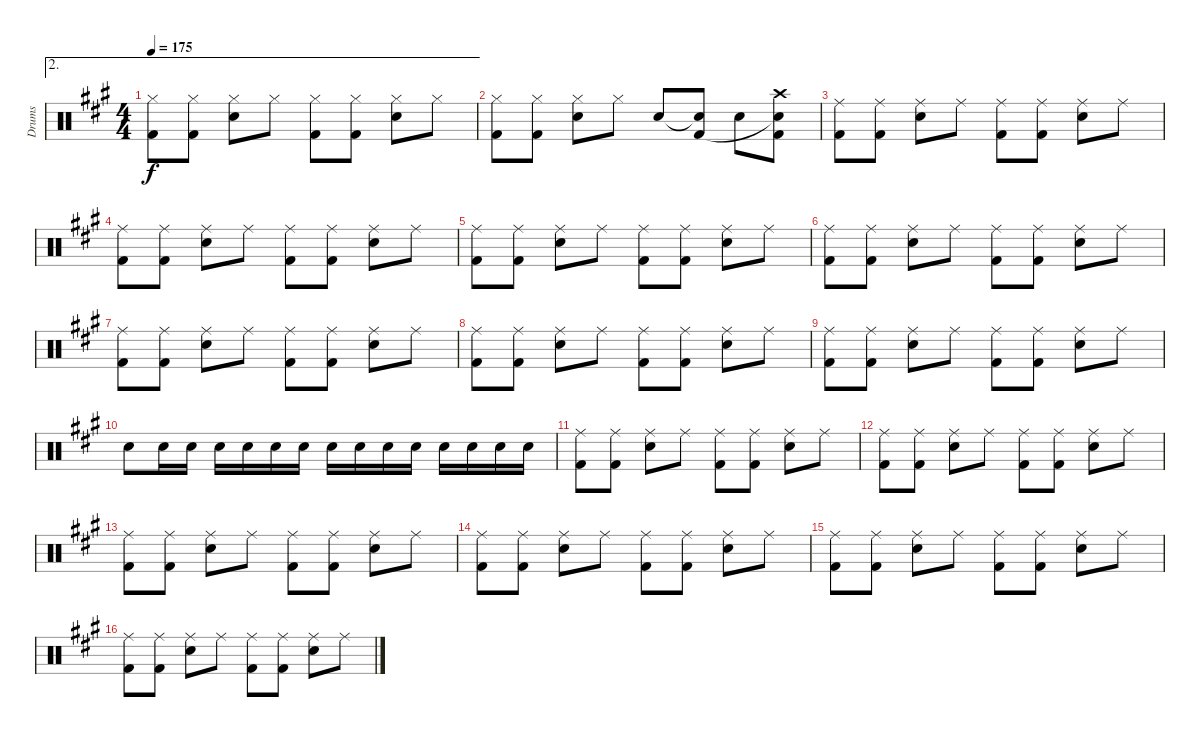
\track ("Drums" "Drums") {instrument percussion}
\staff {score}
\articulation defaults
\ae 2
\ts (4 4)
\tempo 175
\clef neutral
\ks f#minor
("Hi-Hat (closed)" "Kick (hit) 2").8{dy f} ("Hi-Hat (closed)" "Kick (hit) 2").8 ("Hi-Hat (closed)" "Snare (hit) 2").8 "Hi-Hat (closed)".8 ("Hi-Hat (closed)" "Kick (hit) 2").8 ("Hi-Hat (closed)" "Kick (hit) 2").8 ("Hi-Hat (closed)" "Snare (hit) 2").8 "Hi-Hat (closed)".8 |
("Hi-Hat (closed)" "Kick (hit) 2").8 ("Hi-Hat (closed)" "Kick (hit) 2").8 ("Hi-Hat (closed)" "Snare (hit) 2").8 "Hi-Hat (closed)".8 "Snare (hit) 2".8 ("Snare (hit) 2"{t} "Kick (hit) 2").8 "Snare (hit) 2".8 ("Crash high (hit)" "Snare (hit) 2"{t} "Kick (hit) 2").8 |
("Ride (middle)" "Kick (hit) 2").8 ("Ride (middle)" "Kick (hit) 2").8 ("Ride (middle)" "Snare (hit) 2").8 "Ride (middle)".8 ("Ride (middle)" "Kick (hit) 2").8 ("Ride (middle)" "Kick (hit) 2").8 ("Ride (middle)" "Snare (hit) 2").8 "Ride (middle)".8 |
("Ride (middle)" "Kick (hit) 2").8 ("Ride (middle)" "Kick (hit) 2").8 ("Ride (middle)" "Snare (hit) 2").8 "Ride (middle)".8 ("Ride (middle)" "Kick (hit) 2").8 ("Ride (middle)" "Kick (hit) 2").8 ("Ride (middle)" "Snare (hit) 2").8 "Ride (middle)".8 |
("Ride (middle)" "Kick (hit) 2").8 ("Ride (middle)" "Kick (hit) 2").8 ("Ride (middle)" "Snare (hit) 2").8 "Ride (middle)".8 ("Ride (middle)" "Kick (hit) 2").8 ("Ride (middle)" "Kick (hit) 2").8 ("Ride (middle)" "Snare (hit) 2").8 "Ride (middle)".8 |
("Ride (middle)" "Kick (hit) 2").8 ("Ride (middle)" "Kick (hit) 2").8 ("Ride (middle)" "Snare (hit) 2").8 "Ride (middle)".8 ("Ride (middle)" "Kick (hit) 2").8 ("Ride (middle)" "Kick (hit) 2").8 ("Ride (middle)" "Snare (hit) 2").8 "Ride (middle)".8 |
("Ride (middle)" "Kick (hit) 2").8 ("Ride (middle)" "Kick (hit) 2").8 ("Ride (middle)" "Snare (hit) 2").8 "Ride (middle)".8 ("Ride (middle)" "Kick (hit) 2").8 ("Ride (middle)" "Kick (hit) 2").8 ("Ride (middle)" "Snare (hit) 2").8 "Ride (middle)".8 |
("Ride (middle)" "Kick (hit) 2").8 ("Ride (middle)" "Kick (hit) 2").8 ("Ride (middle)" "Snare (hit) 2").8 "Ride (middle)".8 ("Ride (middle)" "Kick (hit) 2").8 ("Ride (middle)" "Kick (hit) 2").8 ("Ride (middle)" "Snare (hit) 2").8 "Ride (middle)".8 |
("Ride (middle)" "Kick (hit) 2").8 ("Ride (middle)" "Kick (hit) 2").8 ("Ride (middle)" "Snare (hit) 2").8 "Ride (middle)".8 ("Ride (middle)" "Kick (hit) 2").8 ("Ride (middle)" "Kick (hit) 2").8 ("Ride (middle)" "Snare (hit) 2").8 "Ride (middle)".8 |
"Snare (hit) 2".8 "Snare (hit) 2".16 "Snare (hit) 2".16 "Snare (hit) 2".16 "Snare (hit) 2".16 "Snare (hit) 2".16 "Snare (hit) 2".16 "Snare (hit) 2".16 "Snare (hit) 2".16 "Snare (hit) 2".16 "Snare (hit) 2".16 "Snare (hit) 2".16 "Snare (hit) 2".16 "Snare (hit) 2".16 "Snare (hit) 2".16 |
("Ride (middle)" "Kick (hit) 2").8 ("Ride (middle)" "Kick (hit) 2").8 ("Ride (middle)" "Snare (hit) 2").8 "Ride (middle)".8 ("Ride (middle)" "Kick (hit) 2").8 ("Ride (middle)" "Kick (hit) 2").8 ("Ride (middle)" "Snare (hit) 2").8 "Ride (middle)".8 |
("Ride (middle)" "Kick (hit) 2").8 ("Ride (middle)" "Kick (hit) 2").8 ("Ride (middle)" "Snare (hit) 2").8 "Ride (middle)".8 ("Ride (middle)" "Kick (hit) 2").8 ("Ride (middle)" "Kick (hit) 2").8 ("Ride (middle)" "Snare (hit) 2").8 "Ride (middle)".8 |
("Ride (middle)" "Kick (hit) 2").8 ("Ride (middle)" "Kick (hit) 2").8 ("Ride (middle)" "Snare (hit) 2").8 "Ride (middle)".8 ("Ride (middle)" "Kick (hit) 2").8 ("Ride (middle)" "Kick (hit) 2").8 ("Ride (middle)" "Snare (hit) 2").8 "Ride (middle)".8 |
("Ride (middle)" "Kick (hit) 2").8 ("Ride (middle)" "Kick (hit) 2").8 ("Ride (middle)" "Snare (hit) 2").8 "Ride (middle)".8 ("Ride (middle)" "Kick (hit) 2").8 ("Ride (middle)" "Kick (hit) 2").8 ("Ride (middle)" "Snare (hit) 2").8 "Ride (middle)".8 |
("Ride (middle)" "Kick (hit) 2").8 ("Ride (middle)" "Kick (hit) 2").8 ("Ride (middle)" "Snare (hit) 2").8 "Ride (middle)".8 ("Ride (middle)" "Kick (hit) 2").8 ("Ride (middle)" "Kick (hit) 2").8 ("Ride (middle)" "Snare (hit) 2").8 "Ride (middle)".8 |
("Ride (middle)" "Kick (hit) 2").8 ("Ride (middle)" "Kick (hit) 2").8 ("Ride (middle)" "Snare (hit) 2").8 "Ride (middle)".8 ("Ride (middle)" "Kick (hit) 2").8 ("Ride (middle)" "Kick (hit) 2").8 ("Ride (middle)" "Snare (hit) 2").8 "Ride (middle)".8
